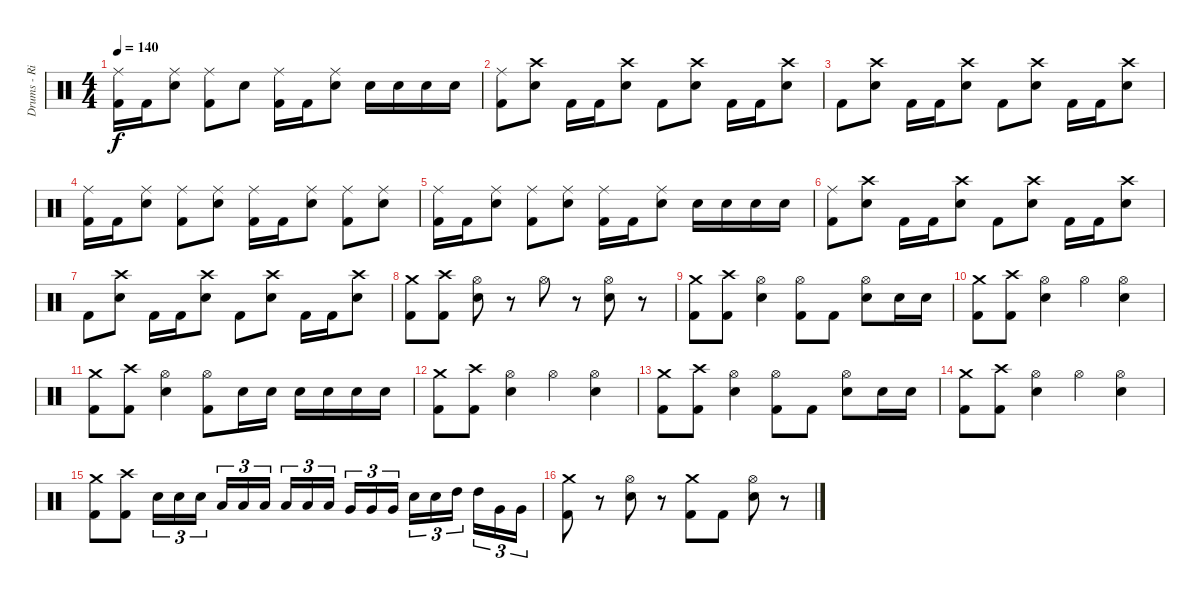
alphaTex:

\track ("Drums - Riley" "Drums - Ri") {instrument percussion}
\staff {score}
\articulation defaults
\ts (4 4)
\tempo 140
\clef neutral
\ks c
("Kick (hit) 2" "Ride (middle)").16{dy f} "Kick (hit) 2".16 ("Electric Snare (hit)" "Ride (middle)").8 ("Kick (hit) 2" "Ride (middle)").8 "Electric Snare (hit)".8 ("Kick (hit) 2" "Ride (middle)").16 "Kick (hit) 2".16 ("Electric Snare (hit)" "Ride (middle)").8 "Electric Snare (hit)".16 "Electric Snare (hit)".16 "Electric Snare (hit)".16 "Electric Snare (hit)".16 |
("Kick (hit) 2" "Ride (middle)").8 ("Electric Snare (hit)" "Crash high (hit)").8 "Kick (hit) 2".16 "Kick (hit) 2".16 ("Electric Snare (hit)" "Crash high (hit)").8 "Kick (hit) 2".8 ("Electric Snare (hit)" "Crash high (hit)").8 "Kick (hit) 2".16 "Kick (hit) 2".16 ("Electric Snare (hit)" "Crash high (hit)").8 |
"Kick (hit) 2".8 ("Electric Snare (hit)" "Crash high (hit)").8 "Kick (hit) 2".16 "Kick (hit) 2".16 ("Electric Snare (hit)" "Crash high (hit)").8 "Kick (hit) 2".8 ("Electric Snare (hit)" "Crash high (hit)").8 "Kick (hit) 2".16 "Kick (hit) 2".16 ("Electric Snare (hit)" "Crash high (hit)").8 |
("Kick (hit) 2" "Ride (middle)").16 "Kick (hit) 2".16 ("Electric Snare (hit)" "Ride (middle)").8 ("Kick (hit) 2" "Ride (middle)").8 ("Electric Snare (hit)" "Ride (middle)").8 ("Kick (hit) 2" "Ride (middle)").16 "Kick (hit) 2".16 ("Electric Snare (hit)" "Ride (middle)").8 ("Kick (hit) 2" "Ride (middle)").8 ("Electric Snare (hit)" "Ride (middle)").8 |
("Kick (hit) 2" "Ride (middle)").16 "Kick (hit) 2".16 ("Electric Snare (hit)" "Ride (middle)").8 ("Kick (hit) 2" "Ride (middle)").8 ("Electric Snare (hit)" "Ride (middle)").8 ("Kick (hit) 2" "Ride (middle)").16 "Kick (hit) 2".16 ("Electric Snare (hit)" "Ride (middle)").8 "Electric Snare (hit)".16 "Electric Snare (hit)".16 "Electric Snare (hit)".16 "Electric Snare (hit)".16 |
("Kick (hit) 2" "Ride (middle)").8 ("Electric Snare (hit)" "Crash high (hit)").8 "Kick (hit) 2".16 "Kick (hit) 2".16 ("Electric Snare (hit)" "Crash high (hit)").8 "Kick (hit) 2".8 ("Electric Snare (hit)" "Crash high (hit)").8 "Kick (hit) 2".16 "Kick (hit) 2".16 ("Electric Snare (hit)" "Crash high (hit)").8 |
"Kick (hit) 2".8 ("Electric Snare (hit)" "Crash high (hit)").8 "Kick (hit) 2".16 "Kick (hit) 2".16 ("Electric Snare (hit)" "Crash high (hit)").8 "Kick (hit) 2".8 ("Electric Snare (hit)" "Crash high (hit)").8 "Kick (hit) 2".16 "Kick (hit) 2".16 ("Electric Snare (hit)" "Crash high (hit)").8 |
("Kick (hit) 2" "Crash medium (hit)").8 ("Kick (hit) 2" "Crash high (hit)").8 ("Electric Snare (hit)" "Hi-Hat (open)").8 r.8 "Hi-Hat (open)".8 r.8 ("Electric Snare (hit)" "Hi-Hat (open)").8 r.8 |
("Kick (hit) 2" "Crash medium (hit)").8 ("Kick (hit) 2" "Crash high (hit)").8 ("Electric Snare (hit)" "Hi-Hat (open)").4 ("Kick (hit) 2" "Hi-Hat (open)").8 "Kick (hit) 2".8 ("Electric Snare (hit)" "Hi-Hat (open)").8 "Electric Snare (hit)".16 "Electric Snare (hit)".16 |
("Kick (hit) 2" "Crash medium (hit)").8 ("Kick (hit) 2" "Crash high (hit)").8 ("Electric Snare (hit)" "Hi-Hat (open)").4 "Hi-Hat (open)".4 ("Electric Snare (hit)" "Hi-Hat (open)").4 |
("Kick (hit) 2" "Crash medium (hit)").8 ("Kick (hit) 2" "Crash high (hit)").8 ("Electric Snare (hit)" "Hi-Hat (open)").4 ("Kick (hit) 2" "Hi-Hat (open)").8 "Electric Snare (hit)".16 "Electric Snare (hit)".16 "Electric Snare (hit)".16 "Electric Snare (hit)".16 "Electric Snare (hit)".16 "Electric Snare (hit)".16 |
("Kick (hit) 2" "Crash medium (hit)").8 ("Kick (hit) 2" "Crash high (hit)").8 ("Electric Snare (hit)" "Hi-Hat (open)").4 "Hi-Hat (open)".4 ("Electric Snare (hit)" "Hi-Hat (open)").4 |
("Kick (hit) 2" "Crash medium (hit)").8 ("Kick (hit) 2" "Crash high (hit)").8 ("Electric Snare (hit)" "Hi-Hat (open)").4 ("Kick (hit) 2" "Hi-Hat (open)").8 "Kick (hit) 2".8 ("Electric Snare (hit)" "Hi-Hat (open)").8 "Electric Snare (hit)".16 "Electric Snare (hit)".16 |
("Kick (hit) 2" "Crash medium (hit)").8 ("Kick (hit) 2" "Crash high (hit)").8 ("Electric Snare (hit)" "Hi-Hat (open)").4 "Hi-Hat (open)".4 ("Electric Snare (hit)" "Hi-Hat (open)").4 |
("Kick (hit) 2" "Crash medium (hit)").8 ("Kick (hit) 2" "Crash high (hit)").8 "Electric Snare (hit)".16{tu (3 2)} "Electric Snare (hit)".16{tu (3 2)} "Electric Snare (hit)".16{tu (3 2)} "Low Tom (hit)".16{tu (3 2)} "Low Tom (hit)".16{tu (3 2)} "Low Tom (hit)".16{tu (3 2)} "Low Floor Tom (hit)".16{tu (3 2)} "Low Floor Tom (hit)".16{tu (3 2)} "Low Floor Tom (hit)".16{tu (3 2)} "Very Low Tom (hit)".16{tu (3 2)} "Very Low Tom (hit)".16{tu (3 2)} "Very Low Tom (hit)".16{tu (3 2)} "Electric Snare (hit)".16{tu (3 2)} "Electric Snare (hit)".16{tu (3 2)} "High Tom (hit)".16{tu (3 2)} "High Tom (hit)".16{tu (3 2)} "Very Low Tom (hit)".16{tu (3 2)} "Very Low Tom (hit)".16{tu (3 2)} |
("Kick (hit) 2" "Crash medium (hit)").8 r.8 ("Electric Snare (hit)" "Hi-Hat (open)").8 r.8 ("Kick (hit) 2" "Crash medium (hit)").8 "Kick (hit) 2".8 ("Electric Snare (hit)" "Hi-Hat (open)").8 r.8
